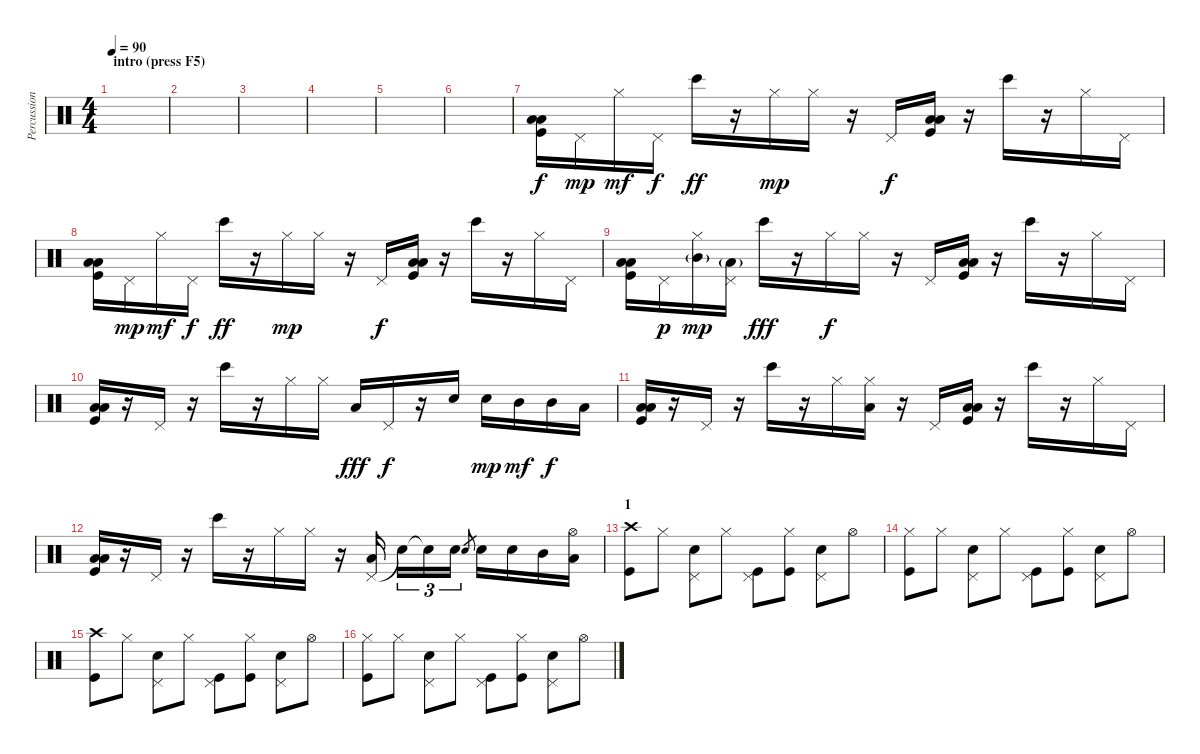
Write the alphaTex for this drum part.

\track ("Percussions" "Percussion") {instrument percussion}
\staff {score}
\articulation defaults
\ts (4 4)
\section ("" "intro (press F5)")
\tempo 90
\clef neutral
\ks c
|
|
|
|
|
|
("Kick (hit)" "Low Floor Tom (hit)" "Low Floor Tom (hit)").16 "Pedal Hi-Hat (hit)".16{dy mp} "Hi-Hat (closed)".16{dy mf} "Pedal Hi-Hat (hit)".16{dy f} "Bongo High (hit)".16{dy ff} r.16 "Hi-Hat (closed)".16{dy mp} "Hi-Hat (closed)".16 r.16 "Pedal Hi-Hat (hit)".16{dy f} ("Kick (hit)" "Low Floor Tom (hit)" "Low Floor Tom (hit)").16 r.16 "Bongo High (hit)".16 r.16 "Hi-Hat (closed)".16 "Pedal Hi-Hat (hit)".16 |
("Kick (hit)" "Low Floor Tom (hit)" "Low Floor Tom (hit)").16 "Pedal Hi-Hat (hit)".16{dy mp} "Hi-Hat (closed)".16{dy mf} "Pedal Hi-Hat (hit)".16{dy f} "Bongo High (hit)".16{dy ff} r.16 "Hi-Hat (closed)".16{dy mp} "Hi-Hat (closed)".16 r.16 "Pedal Hi-Hat (hit)".16{dy f} ("Kick (hit)" "Low Floor Tom (hit)" "Low Floor Tom (hit)").16 r.16 "Bongo High (hit)".16 r.16 "Hi-Hat (closed)".16 "Pedal Hi-Hat (hit)".16 |
("Kick (hit)" "Low Floor Tom (hit)" "Low Floor Tom (hit)").16 "Pedal Hi-Hat (hit)".16{dy p} ("Hi-Hat (closed)" "Mid Tom (hit)"{g}).16{dy mp} ("Pedal Hi-Hat (hit)" "Low Tom (hit)"{g}).16 "Bongo High (hit)".16{dy fff} r.16 "Hi-Hat (closed)".16{dy f} "Hi-Hat (closed)".16 r.16 "Pedal Hi-Hat (hit)".16 ("Kick (hit)" "Low Floor Tom (hit)" "Low Floor Tom (hit)").16 r.16 "Bongo High (hit)".16 r.16 "Hi-Hat (closed)".16 "Pedal Hi-Hat (hit)".16 |
("Kick (hit)" "Low Floor Tom (hit)" "Low Floor Tom (hit)").16 r.16 "Pedal Hi-Hat (hit)".16 r.16 "Bongo High (hit)".16 r.16 "Hi-Hat (closed)".16 "Hi-Hat (closed)".16 "Low Floor Tom (hit)".16{dy fff} "Pedal Hi-Hat (hit)".16{dy f} r.16 "Electric Snare (hit)".16 "Electric Snare (hit)".16{dy mp} "Mid Tom (hit)".16{dy mf} "Mid Tom (hit)".16{dy f} "Low Floor Tom (hit)".16 |
("Kick (hit)" "Low Floor Tom (hit)" "Low Floor Tom (hit)").16 r.16 "Pedal Hi-Hat (hit)".16 r.16 "Bongo High (hit)".16 r.16 "Hi-Hat (closed)".16 ("Hi-Hat (closed)" "Low Floor Tom (hit)").16 r.16 "Pedal Hi-Hat (hit)".16 ("Kick (hit)" "Low Floor Tom (hit)" "Low Floor Tom (hit)").16 r.16 "Bongo High (hit)".16 r.16 "Hi-Hat (closed)".16 "Pedal Hi-Hat (hit)".16 |
("Kick (hit)" "Low Floor Tom (hit)" "Low Floor Tom (hit)").16 r.16 "Pedal Hi-Hat (hit)".16 r.16 "Bongo High (hit)".16 r.16 "Hi-Hat (closed)".16 "Hi-Hat (closed)".16 r.16 ("Pedal Hi-Hat (hit)" "Low Floor Tom (hit)").16 "Snare (hit)"{t}.16{tu (3 2)} "Snare (hit)"{t}.16{tu (3 2)} "Electric Snare (hit)".16{tu (3 2)} "Electric Snare (hit)".8{gr} "Electric Snare (hit)".16 "Electric Snare (hit)".16 "Mid Tom (hit)".16 ("Hi-Hat (open)" "Low Tom (hit)").16 |
\section ("" "1")
("Crash high (hit)" "Kick (hit)").8 "Hi-Hat (closed)".8 ("Pedal Hi-Hat (hit)" "Snare (hit) 2").8 "Hi-Hat (closed)".8 ("Pedal Hi-Hat (hit)" "Kick (hit)").8 ("Hi-Hat (closed)" "Kick (hit)").8 ("Pedal Hi-Hat (hit)" "Snare (hit) 2").8 "Hi-Hat (open)".8 |
("Hi-Hat (closed)" "Kick (hit)").8 "Hi-Hat (closed)".8 ("Pedal Hi-Hat (hit)" "Snare (hit) 2").8 "Hi-Hat (closed)".8 ("Pedal Hi-Hat (hit)" "Kick (hit)").8 ("Hi-Hat (closed)" "Kick (hit)").8 ("Pedal Hi-Hat (hit)" "Snare (hit) 2").8 "Hi-Hat (open)".8 |
("Crash high (hit)" "Kick (hit)").8 "Hi-Hat (closed)".8 ("Pedal Hi-Hat (hit)" "Snare (hit) 2").8 "Hi-Hat (closed)".8 ("Pedal Hi-Hat (hit)" "Kick (hit)").8 ("Hi-Hat (closed)" "Kick (hit)").8 ("Pedal Hi-Hat (hit)" "Snare (hit) 2").8 "Hi-Hat (open)".8 |
("Hi-Hat (closed)" "Kick (hit)").8 "Hi-Hat (closed)".8 ("Pedal Hi-Hat (hit)" "Snare (hit) 2").8 "Hi-Hat (closed)".8 ("Pedal Hi-Hat (hit)" "Kick (hit)").8 ("Hi-Hat (closed)" "Kick (hit)").8 ("Pedal Hi-Hat (hit)" "Snare (hit) 2").8 "Hi-Hat (open)".8
